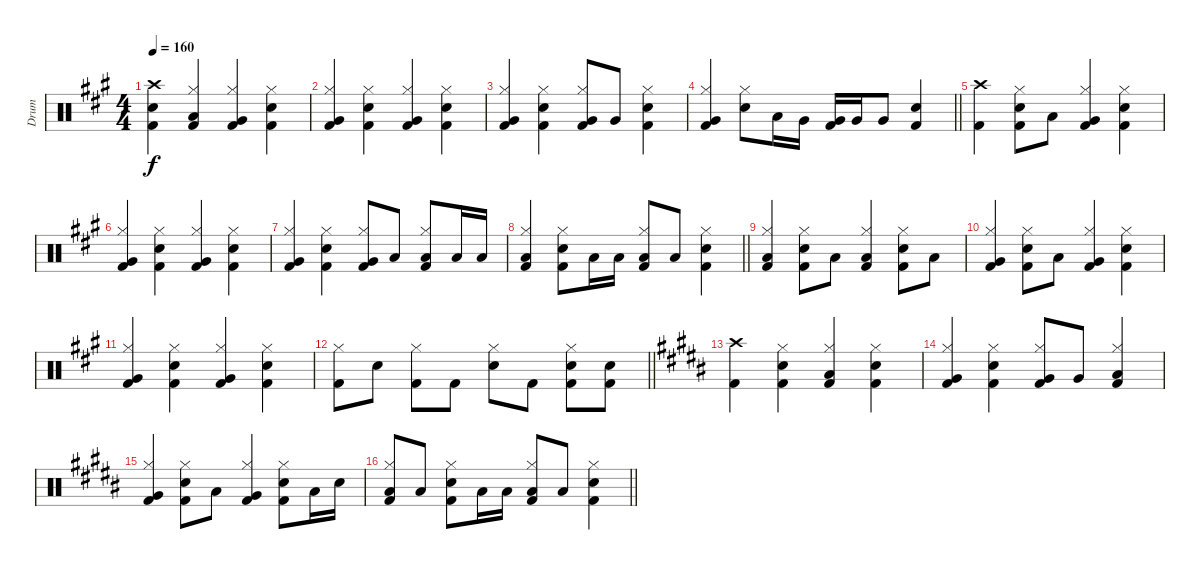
\track ("Drum" "Drum") {instrument percussion}
\staff {score}
\articulation defaults
\ts (4 4)
\tempo 160
\clef neutral
\ks a
("Snare (hit) 2" "Kick (hit) 2" "Crash high (hit)").4{dy f} ("Hi-Hat (closed)" "Kick (hit) 2" "Low Tom (hit)").4 ("Hi-Hat (closed)" "Kick (hit) 2" "Very Low Tom (hit)").4 ("Hi-Hat (closed)" "Snare (hit) 2" "Kick (hit) 2").4 |
("Hi-Hat (closed)" "Kick (hit) 2" "Very Low Tom (hit)").4 ("Hi-Hat (closed)" "Snare (hit) 2" "Kick (hit) 2").4 ("Hi-Hat (closed)" "Kick (hit) 2" "Very Low Tom (hit)").4 ("Hi-Hat (closed)" "Snare (hit) 2" "Kick (hit) 2").4 |
("Hi-Hat (closed)" "Kick (hit) 2" "Very Low Tom (hit)").4 ("Hi-Hat (closed)" "Snare (hit) 2" "Kick (hit) 2").4 ("Hi-Hat (closed)" "Kick (hit) 2" "Very Low Tom (hit)").8 "Very Low Tom (hit)".8 ("Hi-Hat (closed)" "Snare (hit) 2" "Kick (hit) 2").4 |
\barLineRight lightlight
("Hi-Hat (closed)" "Kick (hit) 2" "Very Low Tom (hit)").4 ("Hi-Hat (closed)" "Snare (hit) 2").8 "Low Tom (hit)".16 "Very Low Tom (hit)".16 ("Kick (hit) 2" "Very Low Tom (hit)").16 "Very Low Tom (hit)".16 "Very Low Tom (hit)".8 ("Snare (hit) 2" "Kick (hit) 2").4 |
("Kick (hit) 2" "Crash high (hit)").4 ("Hi-Hat (closed)" "Snare (hit) 2" "Kick (hit) 2").8 "Low Tom (hit)".8 ("Hi-Hat (closed)" "Kick (hit) 2" "Very Low Tom (hit)").4 ("Hi-Hat (closed)" "Snare (hit) 2" "Kick (hit) 2").4 |
("Hi-Hat (closed)" "Kick (hit) 2" "Very Low Tom (hit)").4 ("Hi-Hat (closed)" "Snare (hit) 2" "Kick (hit) 2").4 ("Hi-Hat (closed)" "Kick (hit) 2" "Very Low Tom (hit)").4 ("Hi-Hat (closed)" "Snare (hit) 2" "Kick (hit) 2").4 |
("Hi-Hat (closed)" "Kick (hit) 2" "Very Low Tom (hit)").4 ("Hi-Hat (closed)" "Snare (hit) 2" "Kick (hit) 2").4 ("Hi-Hat (closed)" "Kick (hit) 2" "Very Low Tom (hit)").8 "Low Tom (hit)".8 ("Hi-Hat (closed)" "Kick (hit) 2" "Low Tom (hit)").8 "Low Tom (hit)".16 "Low Tom (hit)".16 |
\barLineRight lightlight
("Hi-Hat (closed)" "Kick (hit) 2" "Low Tom (hit)").4 ("Hi-Hat (closed)" "Snare (hit) 2" "Kick (hit) 2").8 "Low Tom (hit)".16 "Low Tom (hit)".16 ("Hi-Hat (closed)" "Kick (hit) 2" "Low Tom (hit)").8 "Low Tom (hit)".8 ("Hi-Hat (closed)" "Snare (hit) 2" "Kick (hit) 2").4 |
("Hi-Hat (closed)" "Kick (hit) 2" "Low Floor Tom (hit)").4 ("Hi-Hat (closed)" "Snare (hit) 2" "Kick (hit) 2").8 "Low Tom (hit)".8 ("Hi-Hat (closed)" "Kick (hit) 2" "Low Tom (hit)").4 ("Hi-Hat (closed)" "Snare (hit) 2" "Kick (hit) 2").8 "Low Tom (hit)".8 |
("Hi-Hat (closed)" "Kick (hit) 2" "Very Low Tom (hit)").4 ("Hi-Hat (closed)" "Snare (hit) 2" "Kick (hit) 2").8 "Low Tom (hit)".8 ("Hi-Hat (closed)" "Kick (hit) 2" "Very Low Tom (hit)").4 ("Hi-Hat (closed)" "Snare (hit) 2" "Kick (hit) 2").4 |
("Hi-Hat (closed)" "Kick (hit) 2" "Very Low Tom (hit)").4 ("Hi-Hat (closed)" "Snare (hit) 2" "Kick (hit) 2").4 ("Hi-Hat (closed)" "Kick (hit) 2" "Very Low Tom (hit)").4 ("Hi-Hat (closed)" "Snare (hit) 2" "Kick (hit) 2").4 |
\barLineRight lightlight
("Hi-Hat (closed)" "Kick (hit) 2").8 "Snare (hit) 2".8 ("Hi-Hat (closed)" "Kick (hit) 2").8 "Kick (hit) 2".8 ("Hi-Hat (closed)" "Snare (hit) 2").8 "Kick (hit) 2".8 ("Hi-Hat (closed)" "Snare (hit) 2" "Kick (hit) 2").8 ("Snare (hit) 2" "Kick (hit) 2").8 |
\ks b
("Kick (hit) 2" "Crash high (hit)").4 ("Hi-Hat (closed)" "Snare (hit) 2" "Kick (hit) 2").4 ("Hi-Hat (closed)" "Kick (hit) 2" "Low Tom (hit)").4 ("Hi-Hat (closed)" "Snare (hit) 2" "Kick (hit) 2").4 |
("Hi-Hat (closed)" "Kick (hit) 2" "Very Low Tom (hit)").4 ("Hi-Hat (closed)" "Snare (hit) 2" "Kick (hit) 2").4 ("Hi-Hat (closed)" "Kick (hit) 2" "Very Low Tom (hit)").8 "Very Low Tom (hit)".8 ("Hi-Hat (closed)" "Kick (hit) 2" "Low Tom (hit)").4 |
("Hi-Hat (closed)" "Kick (hit) 2" "Very Low Tom (hit)").4 ("Hi-Hat (closed)" "Snare (hit) 2" "Kick (hit) 2").8 "Low Tom (hit)".8 ("Hi-Hat (closed)" "Kick (hit) 2" "Very Low Tom (hit)").4 ("Hi-Hat (closed)" "Snare (hit) 2" "Kick (hit) 2").8 "Low Tom (hit)".16 "Snare (hit) 2".16 |
\barLineRight lightlight
("Hi-Hat (closed)" "Kick (hit) 2" "Low Tom (hit)").8 "Low Tom (hit)".8 ("Hi-Hat (closed)" "Snare (hit) 2" "Kick (hit) 2").8 "Low Tom (hit)".16 "Low Tom (hit)".16 ("Hi-Hat (closed)" "Kick (hit) 2" "Low Tom (hit)").8 "Low Tom (hit)".8 ("Hi-Hat (closed)" "Snare (hit) 2" "Kick (hit) 2").4
